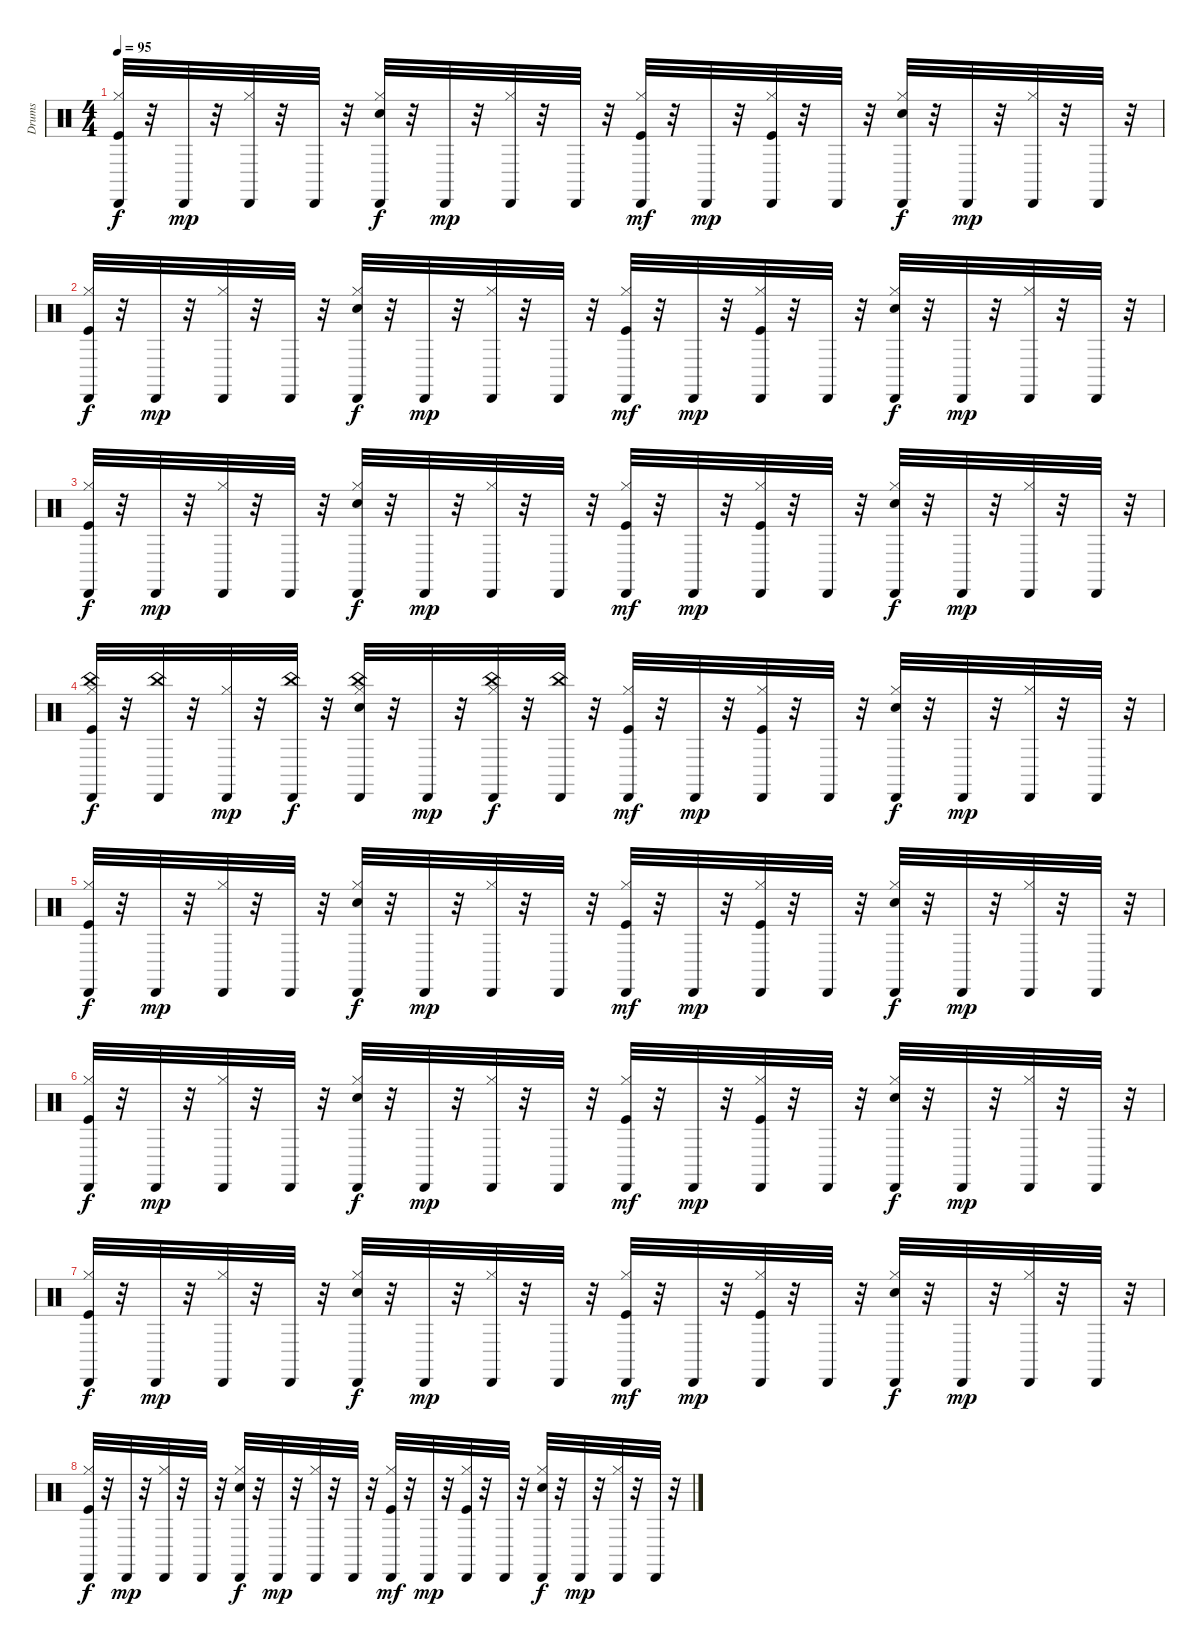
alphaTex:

\track ("Drums" "Drums") {instrument percussion}
\staff {score}
\articulation defaults
\ts (4 4)
\tempo 95
\clef neutral
\ks c
("Hi-Hat (closed)" "Kick (hit)" "Cabasa (hit)").32{dy f} r.32 "Cabasa (hit)".32{dy mp} r.32 ("Hi-Hat (closed)" "Cabasa (hit)").32 r.32 "Cabasa (hit)".32 r.32 ("Hi-Hat (closed)" "Electric Snare (hit)" "Cabasa (hit)").32{dy f} r.32 "Cabasa (hit)".32{dy mp} r.32 ("Hi-Hat (closed)" "Cabasa (hit)").32 r.32 "Cabasa (hit)".32 r.32 ("Hi-Hat (closed)" "Kick (hit)" "Cabasa (hit)").32{dy mf} r.32 "Cabasa (hit)".32{dy mp} r.32 ("Hi-Hat (closed)" "Kick (hit)" "Cabasa (hit)").32 r.32 "Cabasa (hit)".32 r.32 ("Hi-Hat (closed)" "Electric Snare (hit)" "Cabasa (hit)").32{dy f} r.32 "Cabasa (hit)".32{dy mp} r.32 ("Hi-Hat (closed)" "Cabasa (hit)").32 r.32 "Cabasa (hit)".32 r.32 |
("Kick (hit)" "Hi-Hat (closed)" "Cabasa (hit)").32{dy f} r.32 "Cabasa (hit)".32{dy mp} r.32 ("Hi-Hat (closed)" "Cabasa (hit)").32 r.32 "Cabasa (hit)".32 r.32 ("Hi-Hat (closed)" "Electric Snare (hit)" "Cabasa (hit)").32{dy f} r.32 "Cabasa (hit)".32{dy mp} r.32 ("Hi-Hat (closed)" "Cabasa (hit)").32 r.32 "Cabasa (hit)".32 r.32 ("Hi-Hat (closed)" "Kick (hit)" "Cabasa (hit)").32{dy mf} r.32 "Cabasa (hit)".32{dy mp} r.32 ("Hi-Hat (closed)" "Kick (hit)" "Cabasa (hit)").32 r.32 "Cabasa (hit)".32 r.32 ("Hi-Hat (closed)" "Electric Snare (hit)" "Cabasa (hit)").32{dy f} r.32 "Cabasa (hit)".32{dy mp} r.32 ("Hi-Hat (closed)" "Cabasa (hit)").32 r.32 "Cabasa (hit)".32 r.32 |
("Hi-Hat (closed)" "Kick (hit)" "Cabasa (hit)").32{dy f} r.32 "Cabasa (hit)".32{dy mp} r.32 ("Hi-Hat (closed)" "Cabasa (hit)").32 r.32 "Cabasa (hit)".32 r.32 ("Hi-Hat (closed)" "Electric Snare (hit)" "Cabasa (hit)").32{dy f} r.32 "Cabasa (hit)".32{dy mp} r.32 ("Hi-Hat (closed)" "Cabasa (hit)").32 r.32 "Cabasa (hit)".32 r.32 ("Hi-Hat (closed)" "Kick (hit)" "Cabasa (hit)").32{dy mf} r.32 "Cabasa (hit)".32{dy mp} r.32 ("Hi-Hat (closed)" "Kick (hit)" "Cabasa (hit)").32 r.32 "Cabasa (hit)".32 r.32 ("Hi-Hat (closed)" "Electric Snare (hit)" "Cabasa (hit)").32{dy f} r.32 "Cabasa (hit)".32{dy mp} r.32 ("Hi-Hat (closed)" "Cabasa (hit)").32 r.32 "Cabasa (hit)".32 r.32 |
("Kick (hit)" "Hi-Hat (closed)" "Cabasa (hit)" "China (choke)").32{dy f} r.32 ("Cabasa (hit)" "China (choke)").32 r.32 ("Hi-Hat (closed)" "Cabasa (hit)").32{dy mp} r.32 ("Cabasa (hit)" "China (choke)").32{dy f} r.32 ("Hi-Hat (closed)" "Electric Snare (hit)" "Cabasa (hit)" "China (choke)").32 r.32 "Cabasa (hit)".32{dy mp} r.32 ("Hi-Hat (closed)" "Cabasa (hit)" "China (choke)").32{dy f} r.32 ("Cabasa (hit)" "China (choke)").32 r.32 ("Hi-Hat (closed)" "Kick (hit)" "Cabasa (hit)").32{dy mf} r.32 "Cabasa (hit)".32{dy mp} r.32 ("Hi-Hat (closed)" "Kick (hit)" "Cabasa (hit)").32 r.32 "Cabasa (hit)".32 r.32 ("Hi-Hat (closed)" "Electric Snare (hit)" "Cabasa (hit)").32{dy f} r.32 "Cabasa (hit)".32{dy mp} r.32 ("Hi-Hat (closed)" "Cabasa (hit)").32 r.32 "Cabasa (hit)".32 r.32 |
("Hi-Hat (closed)" "Kick (hit)" "Cabasa (hit)").32{dy f} r.32 "Cabasa (hit)".32{dy mp} r.32 ("Hi-Hat (closed)" "Cabasa (hit)").32 r.32 "Cabasa (hit)".32 r.32 ("Hi-Hat (closed)" "Electric Snare (hit)" "Cabasa (hit)").32{dy f} r.32 "Cabasa (hit)".32{dy mp} r.32 ("Hi-Hat (closed)" "Cabasa (hit)").32 r.32 "Cabasa (hit)".32 r.32 ("Hi-Hat (closed)" "Kick (hit)" "Cabasa (hit)").32{dy mf} r.32 "Cabasa (hit)".32{dy mp} r.32 ("Hi-Hat (closed)" "Kick (hit)" "Cabasa (hit)").32 r.32 "Cabasa (hit)".32 r.32 ("Hi-Hat (closed)" "Electric Snare (hit)" "Cabasa (hit)").32{dy f} r.32 "Cabasa (hit)".32{dy mp} r.32 ("Hi-Hat (closed)" "Cabasa (hit)").32 r.32 "Cabasa (hit)".32 r.32 |
("Kick (hit)" "Hi-Hat (closed)" "Cabasa (hit)").32{dy f} r.32 "Cabasa (hit)".32{dy mp} r.32 ("Hi-Hat (closed)" "Cabasa (hit)").32 r.32 "Cabasa (hit)".32 r.32 ("Hi-Hat (closed)" "Electric Snare (hit)" "Cabasa (hit)").32{dy f} r.32 "Cabasa (hit)".32{dy mp} r.32 ("Hi-Hat (closed)" "Cabasa (hit)").32 r.32 "Cabasa (hit)".32 r.32 ("Hi-Hat (closed)" "Kick (hit)" "Cabasa (hit)").32{dy mf} r.32 "Cabasa (hit)".32{dy mp} r.32 ("Hi-Hat (closed)" "Kick (hit)" "Cabasa (hit)").32 r.32 "Cabasa (hit)".32 r.32 ("Hi-Hat (closed)" "Electric Snare (hit)" "Cabasa (hit)").32{dy f} r.32 "Cabasa (hit)".32{dy mp} r.32 ("Hi-Hat (closed)" "Cabasa (hit)").32 r.32 "Cabasa (hit)".32 r.32 |
("Hi-Hat (closed)" "Kick (hit)" "Cabasa (hit)").32{dy f} r.32 "Cabasa (hit)".32{dy mp} r.32 ("Hi-Hat (closed)" "Cabasa (hit)").32 r.32 "Cabasa (hit)".32 r.32 ("Hi-Hat (closed)" "Electric Snare (hit)" "Cabasa (hit)").32{dy f} r.32 "Cabasa (hit)".32{dy mp} r.32 ("Hi-Hat (closed)" "Cabasa (hit)").32 r.32 "Cabasa (hit)".32 r.32 ("Hi-Hat (closed)" "Kick (hit)" "Cabasa (hit)").32{dy mf} r.32 "Cabasa (hit)".32{dy mp} r.32 ("Hi-Hat (closed)" "Kick (hit)" "Cabasa (hit)").32 r.32 "Cabasa (hit)".32 r.32 ("Hi-Hat (closed)" "Electric Snare (hit)" "Cabasa (hit)").32{dy f} r.32 "Cabasa (hit)".32{dy mp} r.32 ("Hi-Hat (closed)" "Cabasa (hit)").32 r.32 "Cabasa (hit)".32 r.32 |
("Kick (hit)" "Hi-Hat (closed)" "Cabasa (hit)").32{dy f} r.32 "Cabasa (hit)".32{dy mp} r.32 ("Hi-Hat (closed)" "Cabasa (hit)").32 r.32 "Cabasa (hit)".32 r.32 ("Hi-Hat (closed)" "Electric Snare (hit)" "Cabasa (hit)").32{dy f} r.32 "Cabasa (hit)".32{dy mp} r.32 ("Hi-Hat (closed)" "Cabasa (hit)").32 r.32 "Cabasa (hit)".32 r.32 ("Hi-Hat (closed)" "Kick (hit)" "Cabasa (hit)").32{dy mf} r.32 "Cabasa (hit)".32{dy mp} r.32 ("Hi-Hat (closed)" "Kick (hit)" "Cabasa (hit)").32 r.32 "Cabasa (hit)".32 r.32 ("Hi-Hat (closed)" "Electric Snare (hit)" "Cabasa (hit)").32{dy f} r.32 "Cabasa (hit)".32{dy mp} r.32 ("Hi-Hat (closed)" "Cabasa (hit)").32 r.32 "Cabasa (hit)".32 r.32
